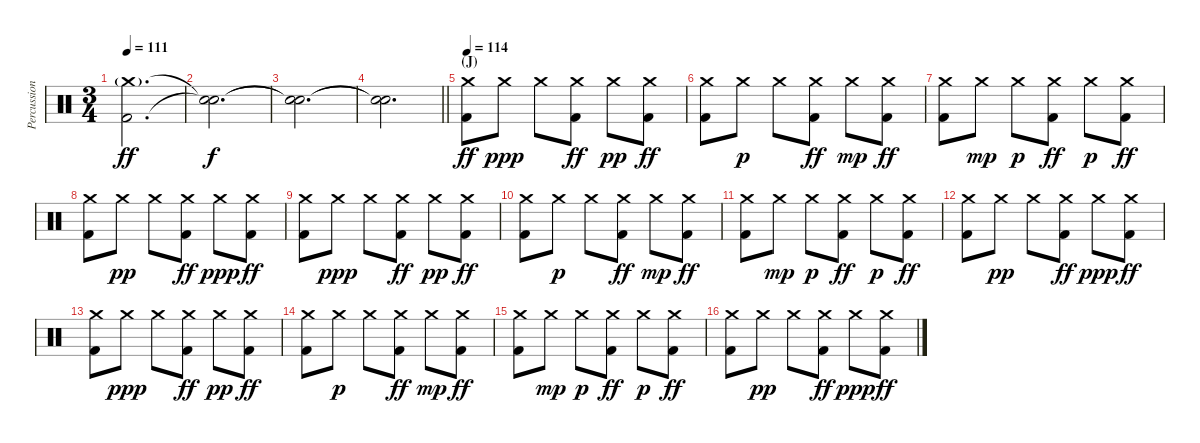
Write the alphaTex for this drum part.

\track ("Percussion 1" "Percussion") {instrument percussion}
\staff {score}
\articulation defaults
\ts (3 4)
\tempo 111
\clef neutral
\ks c
("Crash medium (hit)"{g} "Kick (hit) 2").2{d dy ff} |
("Snare (hit)"{t} "Snare (hit)"{t}).2{d dy f} |
("Snare (hit)"{t} "Snare (hit)"{t}).2{d} |
\barLineRight lightlight
("Snare (hit)"{t} "Snare (hit)"{t}).2{d} |
\section ("" "(J)")
\tempo 114
("Crash medium (hit)" "Kick (hit) 2").8{dy ff volume 7 balance 8} "Crash medium (hit)".8{dy ppp} "Crash medium (hit)".8 ("Crash medium (hit)" "Kick (hit) 2").8{dy ff} "Crash medium (hit)".8{dy pp} ("Crash medium (hit)" "Kick (hit) 2").8{dy ff} |
("Crash medium (hit)" "Kick (hit) 2").8 "Crash medium (hit)".8{dy p} "Crash medium (hit)".8 ("Crash medium (hit)" "Kick (hit) 2").8{dy ff} "Crash medium (hit)".8{dy mp} ("Crash medium (hit)" "Kick (hit) 2").8{dy ff} |
("Crash medium (hit)" "Kick (hit) 2").8 "Crash medium (hit)".8{dy mp} "Crash medium (hit)".8{dy p} ("Crash medium (hit)" "Kick (hit) 2").8{dy ff} "Crash medium (hit)".8{dy p} ("Crash medium (hit)" "Kick (hit) 2").8{dy ff} |
("Crash medium (hit)" "Kick (hit) 2").8 "Crash medium (hit)".8{dy pp} "Crash medium (hit)".8 ("Crash medium (hit)" "Kick (hit) 2").8{dy ff} "Crash medium (hit)".8{dy ppp} ("Crash medium (hit)" "Kick (hit) 2").8{dy ff} |
("Crash medium (hit)" "Kick (hit) 2").8 "Crash medium (hit)".8{dy ppp} "Crash medium (hit)".8 ("Crash medium (hit)" "Kick (hit) 2").8{dy ff} "Crash medium (hit)".8{dy pp} ("Crash medium (hit)" "Kick (hit) 2").8{dy ff} |
("Crash medium (hit)" "Kick (hit) 2").8 "Crash medium (hit)".8{dy p} "Crash medium (hit)".8 ("Crash medium (hit)" "Kick (hit) 2").8{dy ff} "Crash medium (hit)".8{dy mp} ("Crash medium (hit)" "Kick (hit) 2").8{dy ff} |
("Crash medium (hit)" "Kick (hit) 2").8 "Crash medium (hit)".8{dy mp} "Crash medium (hit)".8{dy p} ("Crash medium (hit)" "Kick (hit) 2").8{dy ff} "Crash medium (hit)".8{dy p} ("Crash medium (hit)" "Kick (hit) 2").8{dy ff} |
("Crash medium (hit)" "Kick (hit) 2").8 "Crash medium (hit)".8{dy pp} "Crash medium (hit)".8 ("Crash medium (hit)" "Kick (hit) 2").8{dy ff} "Crash medium (hit)".8{dy ppp} ("Crash medium (hit)" "Kick (hit) 2").8{dy ff} |
("Crash medium (hit)" "Kick (hit) 2").8 "Crash medium (hit)".8{dy ppp} "Crash medium (hit)".8 ("Crash medium (hit)" "Kick (hit) 2").8{dy ff} "Crash medium (hit)".8{dy pp} ("Crash medium (hit)" "Kick (hit) 2").8{dy ff} |
("Crash medium (hit)" "Kick (hit) 2").8 "Crash medium (hit)".8{dy p} "Crash medium (hit)".8 ("Crash medium (hit)" "Kick (hit) 2").8{dy ff} "Crash medium (hit)".8{dy mp} ("Crash medium (hit)" "Kick (hit) 2").8{dy ff} |
("Crash medium (hit)" "Kick (hit) 2").8 "Crash medium (hit)".8{dy mp} "Crash medium (hit)".8{dy p} ("Crash medium (hit)" "Kick (hit) 2").8{dy ff} "Crash medium (hit)".8{dy p} ("Crash medium (hit)" "Kick (hit) 2").8{dy ff} |
("Crash medium (hit)" "Kick (hit) 2").8 "Crash medium (hit)".8{dy pp} "Crash medium (hit)".8 ("Crash medium (hit)" "Kick (hit) 2").8{dy ff} "Crash medium (hit)".8{dy ppp} ("Crash medium (hit)" "Kick (hit) 2").8{dy ff}
